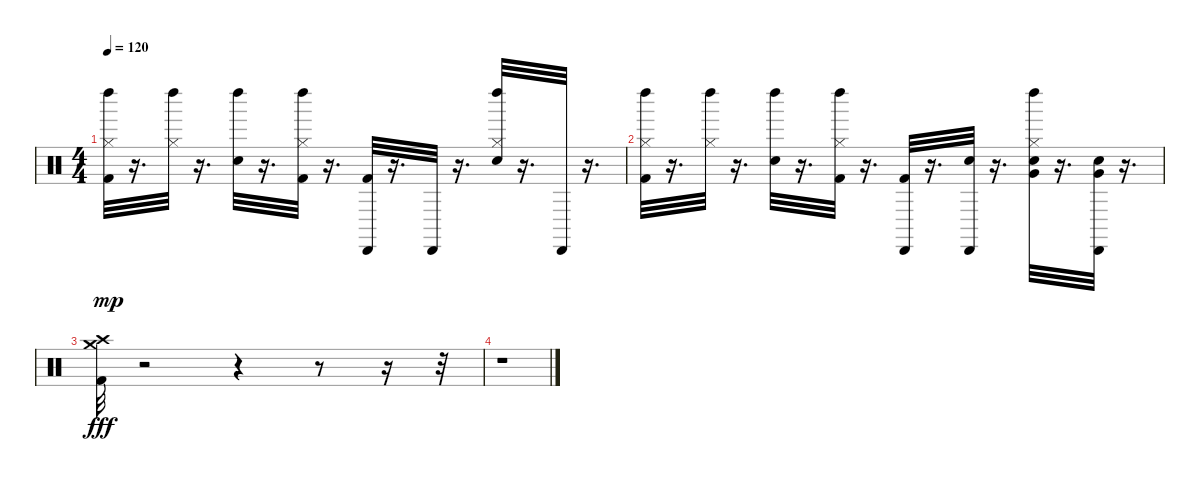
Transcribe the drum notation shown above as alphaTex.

\track "" {instrument percussion}
\staff {score}
\articulation defaults
\ts (4 4)
\tempo 120
\clef neutral
\ks c
("Left Maraca (hit)" "Hi-Hat (closed)" "Kick (hit) 2").32{dy mp} r.16{d} ("Left Maraca (hit)" "Hi-Hat (closed)").32 r.16{d} ("Left Maraca (hit)" "Electric Snare (hit)").32 r.16{d} ("Kick (hit) 2" "Left Maraca (hit)" "Hi-Hat (closed)").32 r.16{d} ("Kick (hit) 2" "Cabasa (hit)").32 r.16{d} "Cabasa (hit)".32 r.16{d} ("Hi-Hat (closed)" "Left Maraca (hit)" "Electric Snare (hit)").32 r.16{d} "Cabasa (hit)".32 r.16{d} |
("Left Maraca (hit)" "Hi-Hat (closed)" "Kick (hit) 2").32 r.16{d} ("Left Maraca (hit)" "Hi-Hat (closed)").32 r.16{d} ("Left Maraca (hit)" "Electric Snare (hit)").32 r.16{d} ("Kick (hit) 2" "Left Maraca (hit)" "Hi-Hat (closed)").32 r.16{d} ("Kick (hit) 2" "Cabasa (hit)").32 r.16{d} ("Cabasa (hit)" "Electric Snare (hit)").32 r.16{d} ("Electric Snare (hit)" "Very Low Tom (hit)" "Hi-Hat (closed)" "Left Maraca (hit)").32 r.16{d} ("Electric Snare (hit)" "Very Low Tom (hit)" "Cabasa (hit)").32 r.16{d} |
("Crash medium (hit)" "Crash high (hit)" "Kick (hit) 2").32{dy fff} r.2 r.4 r.8 r.16 r.32 |
r.1
